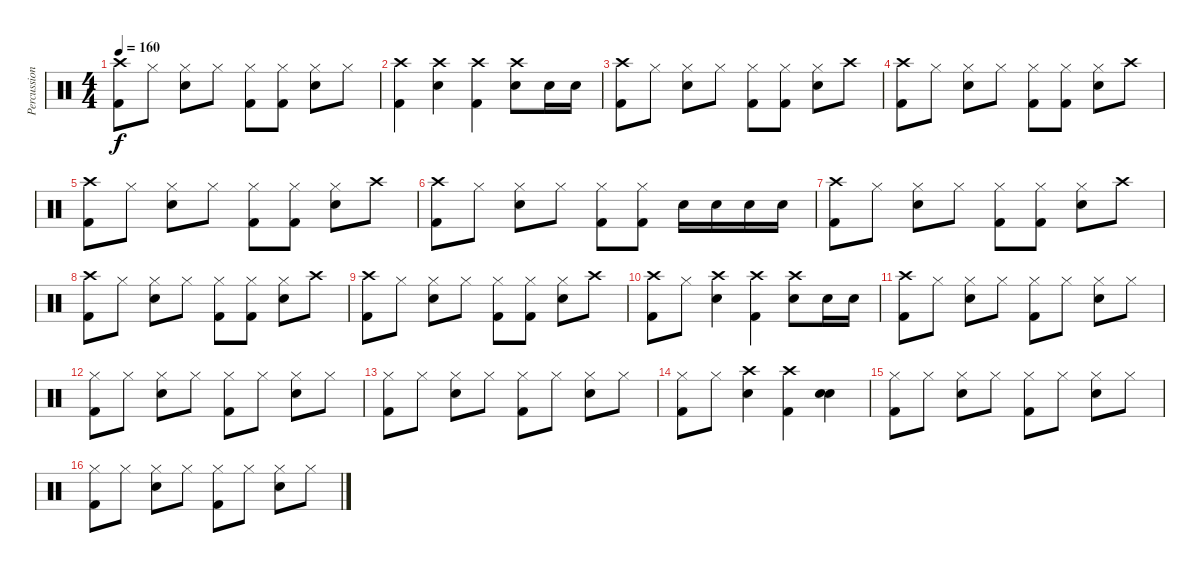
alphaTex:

\track ("Percussion" "Percussion") {instrument percussion}
\staff {score}
\articulation defaults
\ts (4 4)
\tempo 160
\clef neutral
\ks c
("Crash high (hit)" "Kick (hit) 2").8{dy f} "Hi-Hat (closed)".8 ("Hi-Hat (closed)" "Snare (hit) 2").8 "Hi-Hat (closed)".8 ("Hi-Hat (closed)" "Kick (hit) 2").8 ("Hi-Hat (closed)" "Kick (hit) 2").8 ("Hi-Hat (closed)" "Snare (hit) 2").8 "Hi-Hat (closed)".8 |
("Crash high (hit)" "Kick (hit) 2").4 ("Crash high (hit)" "Snare (hit) 2").4 ("Crash high (hit)" "Kick (hit) 2").4 ("Crash high (hit)" "Snare (hit) 2").8 "Snare (hit) 2".16 "Snare (hit) 2".16 |
("Crash high (hit)" "Kick (hit) 2").8 "Hi-Hat (closed)".8 ("Hi-Hat (closed)" "Snare (hit) 2").8 "Hi-Hat (closed)".8 ("Hi-Hat (closed)" "Kick (hit) 2").8 ("Hi-Hat (closed)" "Kick (hit) 2").8 ("Hi-Hat (closed)" "Snare (hit) 2").8 "Crash high (hit)".8 |
("Crash high (hit)" "Kick (hit) 2").8 "Hi-Hat (closed)".8 ("Hi-Hat (closed)" "Snare (hit) 2").8 "Hi-Hat (closed)".8 ("Hi-Hat (closed)" "Kick (hit) 2").8 ("Hi-Hat (closed)" "Kick (hit) 2").8 ("Hi-Hat (closed)" "Snare (hit) 2").8 "Crash high (hit)".8 |
("Crash high (hit)" "Kick (hit) 2").8 "Hi-Hat (closed)".8 ("Hi-Hat (closed)" "Snare (hit) 2").8 "Hi-Hat (closed)".8 ("Hi-Hat (closed)" "Kick (hit) 2").8 ("Hi-Hat (closed)" "Kick (hit) 2").8 ("Hi-Hat (closed)" "Snare (hit) 2").8 "Crash high (hit)".8 |
("Crash high (hit)" "Kick (hit) 2").8 "Hi-Hat (closed)".8 ("Hi-Hat (closed)" "Snare (hit) 2").8 "Hi-Hat (closed)".8 ("Hi-Hat (closed)" "Kick (hit) 2").8 ("Hi-Hat (closed)" "Kick (hit) 2").8 "Snare (hit) 2".16 "Snare (hit) 2".16 "Snare (hit) 2".16 "Snare (hit) 2".16 |
("Crash high (hit)" "Kick (hit) 2").8 "Hi-Hat (closed)".8 ("Hi-Hat (closed)" "Snare (hit) 2").8 "Hi-Hat (closed)".8 ("Hi-Hat (closed)" "Kick (hit) 2").8 ("Hi-Hat (closed)" "Kick (hit) 2").8 ("Hi-Hat (closed)" "Snare (hit) 2").8 "Crash high (hit)".8 |
("Crash high (hit)" "Kick (hit) 2").8 "Hi-Hat (closed)".8 ("Hi-Hat (closed)" "Snare (hit) 2").8 "Hi-Hat (closed)".8 ("Hi-Hat (closed)" "Kick (hit) 2").8 ("Hi-Hat (closed)" "Kick (hit) 2").8 ("Hi-Hat (closed)" "Snare (hit) 2").8 "Crash high (hit)".8 |
("Crash high (hit)" "Kick (hit) 2").8 "Hi-Hat (closed)".8 ("Hi-Hat (closed)" "Snare (hit) 2").8 "Hi-Hat (closed)".8 ("Hi-Hat (closed)" "Kick (hit) 2").8 ("Hi-Hat (closed)" "Kick (hit) 2").8 ("Hi-Hat (closed)" "Snare (hit) 2").8 "Crash high (hit)".8 |
("Crash high (hit)" "Kick (hit) 2").8 "Hi-Hat (closed)".8 ("Crash high (hit)" "Snare (hit) 2").4 ("Crash high (hit)" "Kick (hit) 2").4 ("Crash high (hit)" "Snare (hit) 2").8 "Snare (hit) 2".16 "Snare (hit) 2".16 |
("Crash high (hit)" "Kick (hit) 2").8 "Hi-Hat (closed)".8 ("Hi-Hat (closed)" "Snare (hit) 2").8 "Hi-Hat (closed)".8 ("Hi-Hat (closed)" "Kick (hit) 2").8 "Hi-Hat (closed)".8 ("Hi-Hat (closed)" "Snare (hit) 2").8 "Hi-Hat (closed)".8 |
("Hi-Hat (closed)" "Kick (hit) 2").8 "Hi-Hat (closed)".8 ("Hi-Hat (closed)" "Snare (hit) 2").8 "Hi-Hat (closed)".8 ("Hi-Hat (closed)" "Kick (hit) 2").8 "Hi-Hat (closed)".8 ("Hi-Hat (closed)" "Snare (hit) 2").8 "Hi-Hat (closed)".8 |
("Hi-Hat (closed)" "Kick (hit) 2").8 "Hi-Hat (closed)".8 ("Hi-Hat (closed)" "Snare (hit) 2").8 "Hi-Hat (closed)".8 ("Hi-Hat (closed)" "Kick (hit) 2").8 "Hi-Hat (closed)".8 ("Hi-Hat (closed)" "Snare (hit) 2").8 "Hi-Hat (closed)".8 |
("Hi-Hat (closed)" "Kick (hit) 2").8 "Hi-Hat (closed)".8 ("Crash high (hit)" "Snare (hit) 2").4 ("Crash high (hit)" "Kick (hit) 2").4 ("Snare (hit) 2" "Snare (hit) 2").4 |
("Hi-Hat (closed)" "Kick (hit) 2").8 "Hi-Hat (closed)".8 ("Hi-Hat (closed)" "Snare (hit) 2").8 "Hi-Hat (closed)".8 ("Hi-Hat (closed)" "Kick (hit) 2").8 "Hi-Hat (closed)".8 ("Hi-Hat (closed)" "Snare (hit) 2").8 "Hi-Hat (closed)".8 |
("Hi-Hat (closed)" "Kick (hit) 2").8 "Hi-Hat (closed)".8 ("Hi-Hat (closed)" "Snare (hit) 2").8 "Hi-Hat (closed)".8 ("Hi-Hat (closed)" "Kick (hit) 2").8 "Hi-Hat (closed)".8 ("Hi-Hat (closed)" "Snare (hit) 2").8 "Hi-Hat (closed)".8
